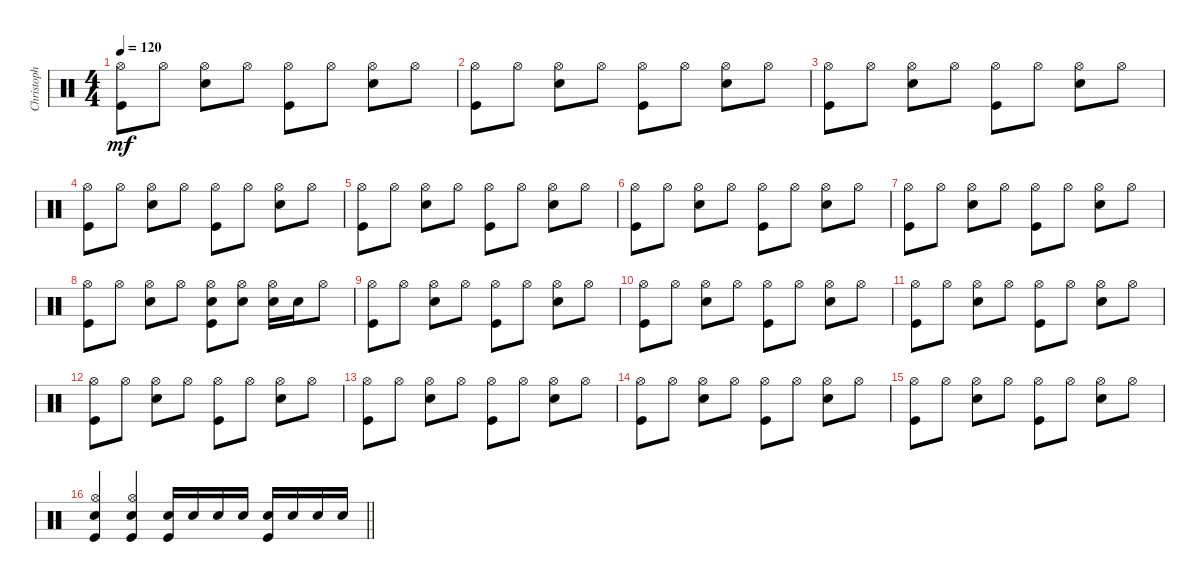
\track ("Christoph Schneider" "Christoph ") {instrument percussion}
\staff {score}
\articulation defaults
\ts (4 4)
\tempo 120
\clef neutral
\ks c
("Kick (hit)" "Hi-Hat (open)").8{dy mf} "Hi-Hat (open)".8 ("Snare (hit) 2" "Hi-Hat (open)").8 "Hi-Hat (open)".8 ("Hi-Hat (open)" "Kick (hit)").8 "Hi-Hat (open)".8 ("Hi-Hat (open)" "Snare (hit) 2").8 "Hi-Hat (open)".8 |
("Kick (hit)" "Hi-Hat (open)").8 "Hi-Hat (open)".8 ("Snare (hit) 2" "Hi-Hat (open)").8 "Hi-Hat (open)".8 ("Hi-Hat (open)" "Kick (hit)").8 "Hi-Hat (open)".8 ("Hi-Hat (open)" "Snare (hit) 2").8 "Hi-Hat (open)".8 |
("Kick (hit)" "Hi-Hat (open)").8 "Hi-Hat (open)".8 ("Snare (hit) 2" "Hi-Hat (open)").8 "Hi-Hat (open)".8 ("Hi-Hat (open)" "Kick (hit)").8 "Hi-Hat (open)".8 ("Hi-Hat (open)" "Snare (hit) 2").8 "Hi-Hat (open)".8 |
("Kick (hit)" "Hi-Hat (open)").8 "Hi-Hat (open)".8 ("Snare (hit) 2" "Hi-Hat (open)").8 "Hi-Hat (open)".8 ("Hi-Hat (open)" "Kick (hit)").8 "Hi-Hat (open)".8 ("Hi-Hat (open)" "Snare (hit) 2").8 "Hi-Hat (open)".8 |
("Kick (hit)" "Hi-Hat (open)").8 "Hi-Hat (open)".8 ("Snare (hit) 2" "Hi-Hat (open)").8 "Hi-Hat (open)".8 ("Hi-Hat (open)" "Kick (hit)").8 "Hi-Hat (open)".8 ("Hi-Hat (open)" "Snare (hit) 2").8 "Hi-Hat (open)".8 |
("Kick (hit)" "Hi-Hat (open)").8 "Hi-Hat (open)".8 ("Snare (hit) 2" "Hi-Hat (open)").8 "Hi-Hat (open)".8 ("Hi-Hat (open)" "Kick (hit)").8 "Hi-Hat (open)".8 ("Hi-Hat (open)" "Snare (hit) 2").8 "Hi-Hat (open)".8 |
("Kick (hit)" "Hi-Hat (open)").8 "Hi-Hat (open)".8 ("Snare (hit) 2" "Hi-Hat (open)").8 "Hi-Hat (open)".8 ("Hi-Hat (open)" "Kick (hit)").8 "Hi-Hat (open)".8 ("Hi-Hat (open)" "Snare (hit) 2").8 "Hi-Hat (open)".8 |
("Kick (hit)" "Hi-Hat (open)").8 "Hi-Hat (open)".8 ("Snare (hit) 2" "Hi-Hat (open)").8 "Hi-Hat (open)".8 ("Hi-Hat (open)" "Kick (hit)" "Snare (hit) 2").8 ("Hi-Hat (open)" "Snare (hit) 2").8 ("Hi-Hat (open)" "Snare (hit) 2").16 "Snare (hit) 2".16 "Hi-Hat (open)".8 |
("Kick (hit)" "Hi-Hat (open)").8 "Hi-Hat (open)".8 ("Snare (hit) 2" "Hi-Hat (open)").8 "Hi-Hat (open)".8 ("Hi-Hat (open)" "Kick (hit)").8 "Hi-Hat (open)".8 ("Hi-Hat (open)" "Snare (hit) 2").8 "Hi-Hat (open)".8 |
("Kick (hit)" "Hi-Hat (open)").8 "Hi-Hat (open)".8 ("Snare (hit) 2" "Hi-Hat (open)").8 "Hi-Hat (open)".8 ("Hi-Hat (open)" "Kick (hit)").8 "Hi-Hat (open)".8 ("Hi-Hat (open)" "Snare (hit) 2").8 "Hi-Hat (open)".8 |
("Kick (hit)" "Hi-Hat (open)").8 "Hi-Hat (open)".8 ("Snare (hit) 2" "Hi-Hat (open)").8 "Hi-Hat (open)".8 ("Hi-Hat (open)" "Kick (hit)").8 "Hi-Hat (open)".8 ("Hi-Hat (open)" "Snare (hit) 2").8 "Hi-Hat (open)".8 |
("Kick (hit)" "Hi-Hat (open)").8 "Hi-Hat (open)".8 ("Snare (hit) 2" "Hi-Hat (open)").8 "Hi-Hat (open)".8 ("Hi-Hat (open)" "Kick (hit)").8 "Hi-Hat (open)".8 ("Hi-Hat (open)" "Snare (hit) 2").8 "Hi-Hat (open)".8 |
("Kick (hit)" "Hi-Hat (open)").8 "Hi-Hat (open)".8 ("Snare (hit) 2" "Hi-Hat (open)").8 "Hi-Hat (open)".8 ("Hi-Hat (open)" "Kick (hit)").8 "Hi-Hat (open)".8 ("Hi-Hat (open)" "Snare (hit) 2").8 "Hi-Hat (open)".8 |
("Kick (hit)" "Hi-Hat (open)").8 "Hi-Hat (open)".8 ("Snare (hit) 2" "Hi-Hat (open)").8 "Hi-Hat (open)".8 ("Hi-Hat (open)" "Kick (hit)").8 "Hi-Hat (open)".8 ("Hi-Hat (open)" "Snare (hit) 2").8 "Hi-Hat (open)".8 |
("Kick (hit)" "Hi-Hat (open)").8 "Hi-Hat (open)".8 ("Snare (hit) 2" "Hi-Hat (open)").8 "Hi-Hat (open)".8 ("Hi-Hat (open)" "Kick (hit)").8 "Hi-Hat (open)".8 ("Hi-Hat (open)" "Snare (hit) 2").8 "Hi-Hat (open)".8 |
\barLineRight lightlight
("Kick (hit)" "Snare (hit) 2" "Hi-Hat (open)").4 ("Kick (hit)" "Snare (hit) 2" "Hi-Hat (open)").4 ("Snare (hit) 2" "Kick (hit)").16 "Snare (hit) 2".16 "Snare (hit) 2".16 "Snare (hit) 2".16 ("Kick (hit)" "Snare (hit) 2").16 "Snare (hit) 2".16 "Snare (hit) 2".16 "Snare (hit) 2".16
